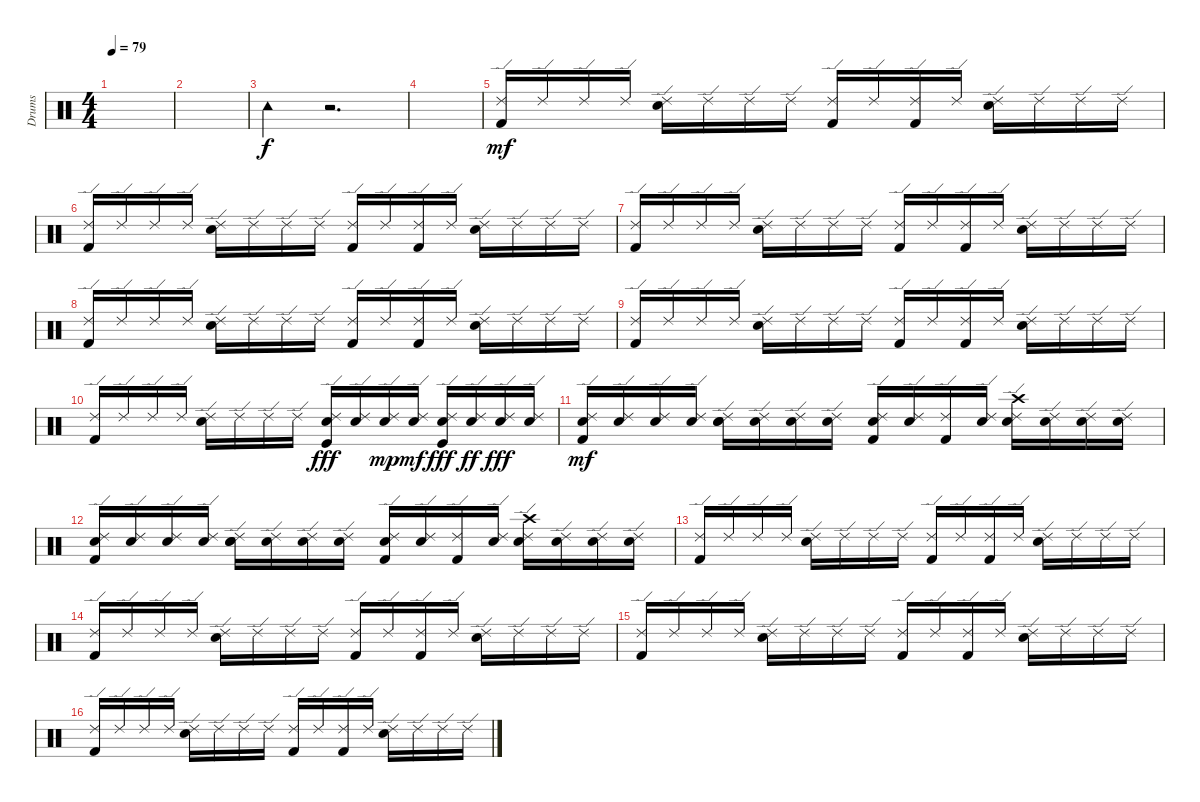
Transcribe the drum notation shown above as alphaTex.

\track ("Drums" "Drums") {instrument percussion}
\staff {score}
\articulation defaults
\ts (4 4)
\tempo 79
\clef neutral
\ks c
|
|
"Tambourine (hit)".4 r.2{d} |
|
("Kick (hit) 2" "Ride (edge) 2").16{dy mf} "Ride (edge) 2".16 "Ride (edge) 2".16 "Ride (edge) 2".16 ("Electric Snare (hit)" "Ride (edge) 2").16 "Ride (edge) 2".16 "Ride (edge) 2".16 "Ride (edge) 2".16 ("Kick (hit) 2" "Ride (edge) 2").16 "Ride (edge) 2".16 ("Kick (hit) 2" "Ride (edge) 2").16 "Ride (edge) 2".16 ("Electric Snare (hit)" "Ride (edge) 2").16 "Ride (edge) 2".16 "Ride (edge) 2".16 "Ride (edge) 2".16 |
("Kick (hit) 2" "Ride (edge) 2").16 "Ride (edge) 2".16 "Ride (edge) 2".16 "Ride (edge) 2".16 ("Electric Snare (hit)" "Ride (edge) 2").16 "Ride (edge) 2".16 "Ride (edge) 2".16 "Ride (edge) 2".16 ("Kick (hit) 2" "Ride (edge) 2").16 "Ride (edge) 2".16 ("Kick (hit) 2" "Ride (edge) 2").16 "Ride (edge) 2".16 ("Electric Snare (hit)" "Ride (edge) 2").16 "Ride (edge) 2".16 "Ride (edge) 2".16 "Ride (edge) 2".16 |
("Kick (hit) 2" "Ride (edge) 2").16 "Ride (edge) 2".16 "Ride (edge) 2".16 "Ride (edge) 2".16 ("Electric Snare (hit)" "Ride (edge) 2").16 "Ride (edge) 2".16 "Ride (edge) 2".16 "Ride (edge) 2".16 ("Kick (hit) 2" "Ride (edge) 2").16 "Ride (edge) 2".16 ("Kick (hit) 2" "Ride (edge) 2").16 "Ride (edge) 2".16 ("Electric Snare (hit)" "Ride (edge) 2").16 "Ride (edge) 2".16 "Ride (edge) 2".16 "Ride (edge) 2".16 |
("Kick (hit) 2" "Ride (edge) 2").16 "Ride (edge) 2".16 "Ride (edge) 2".16 "Ride (edge) 2".16 ("Electric Snare (hit)" "Ride (edge) 2").16 "Ride (edge) 2".16 "Ride (edge) 2".16 "Ride (edge) 2".16 ("Kick (hit) 2" "Ride (edge) 2").16 "Ride (edge) 2".16 ("Kick (hit) 2" "Ride (edge) 2").16 "Ride (edge) 2".16 ("Electric Snare (hit)" "Ride (edge) 2").16 "Ride (edge) 2".16 "Ride (edge) 2".16 "Ride (edge) 2".16 |
("Kick (hit) 2" "Ride (edge) 2").16 "Ride (edge) 2".16 "Ride (edge) 2".16 "Ride (edge) 2".16 ("Electric Snare (hit)" "Ride (edge) 2").16 "Ride (edge) 2".16 "Ride (edge) 2".16 "Ride (edge) 2".16 ("Kick (hit) 2" "Ride (edge) 2").16 "Ride (edge) 2".16 ("Kick (hit) 2" "Ride (edge) 2").16 "Ride (edge) 2".16 ("Electric Snare (hit)" "Ride (edge) 2").16 "Ride (edge) 2".16 "Ride (edge) 2".16 "Ride (edge) 2".16 |
("Kick (hit) 2" "Ride (edge) 2").16 "Ride (edge) 2".16 "Ride (edge) 2".16 "Ride (edge) 2".16 ("Electric Snare (hit)" "Ride (edge) 2").16 "Ride (edge) 2".16 "Ride (edge) 2".16 "Ride (edge) 2".16 ("Electric Snare (hit)" "Ride (edge) 2" "Kick (hit)").16{dy fff} ("Electric Snare (hit)" "Ride (edge) 2").16 ("Electric Snare (hit)" "Ride (edge) 2").16{dy mp} ("Electric Snare (hit)" "Ride (edge) 2").16{dy mf} ("Electric Snare (hit)" "Ride (edge) 2" "Kick (hit)").16{dy fff} ("Electric Snare (hit)" "Ride (edge) 2").16{dy ff} ("Electric Snare (hit)" "Ride (edge) 2").16{dy fff} ("Electric Snare (hit)" "Ride (edge) 2").16 |
("Kick (hit) 2" "Ride (edge) 2" "Electric Snare (hit)").16{dy mf} ("Snare (hit) 2" "Ride (edge) 2").16 ("Snare (hit) 2" "Ride (edge) 2").16 ("Snare (hit) 2" "Ride (edge) 2").16 ("Electric Snare (hit)" "Ride (edge) 2" "Electric Snare (hit)").16 ("Snare (hit) 2" "Ride (edge) 2").16 ("Snare (hit) 2" "Ride (edge) 2").16 ("Snare (hit) 2" "Ride (edge) 2").16 ("Kick (hit) 2" "Ride (edge) 2" "Electric Snare (hit)").16 ("Snare (hit) 2" "Ride (edge) 2").16 ("Kick (hit) 2" "Ride (edge) 2").16 ("Snare (hit) 2" "Ride (edge) 2").16 ("Electric Snare (hit)" "Ride (edge) 2" "Crash high (hit)").16 ("Snare (hit) 2" "Ride (edge) 2").16 ("Snare (hit) 2" "Ride (edge) 2").16 ("Snare (hit) 2" "Ride (edge) 2").16 |
("Kick (hit) 2" "Ride (edge) 2" "Electric Snare (hit)").16 ("Snare (hit) 2" "Ride (edge) 2").16 ("Snare (hit) 2" "Ride (edge) 2").16 ("Snare (hit) 2" "Ride (edge) 2").16 ("Electric Snare (hit)" "Ride (edge) 2" "Electric Snare (hit)").16 ("Snare (hit) 2" "Ride (edge) 2").16 ("Snare (hit) 2" "Ride (edge) 2").16 ("Snare (hit) 2" "Ride (edge) 2").16 ("Kick (hit) 2" "Ride (edge) 2" "Electric Snare (hit)").16 ("Snare (hit) 2" "Ride (edge) 2").16 ("Kick (hit) 2" "Ride (edge) 2").16 ("Snare (hit) 2" "Ride (edge) 2").16 ("Electric Snare (hit)" "Ride (edge) 2" "Crash high (hit)").16 ("Snare (hit) 2" "Ride (edge) 2").16 ("Snare (hit) 2" "Ride (edge) 2").16 ("Snare (hit) 2" "Ride (edge) 2").16 |
("Kick (hit) 2" "Ride (edge) 2").16 "Ride (edge) 2".16 "Ride (edge) 2".16 "Ride (edge) 2".16 ("Electric Snare (hit)" "Ride (edge) 2").16 "Ride (edge) 2".16 "Ride (edge) 2".16 "Ride (edge) 2".16 ("Kick (hit) 2" "Ride (edge) 2").16 "Ride (edge) 2".16 ("Kick (hit) 2" "Ride (edge) 2").16 "Ride (edge) 2".16 ("Electric Snare (hit)" "Ride (edge) 2").16 "Ride (edge) 2".16 "Ride (edge) 2".16 "Ride (edge) 2".16 |
("Kick (hit) 2" "Ride (edge) 2").16 "Ride (edge) 2".16 "Ride (edge) 2".16 "Ride (edge) 2".16 ("Electric Snare (hit)" "Ride (edge) 2").16 "Ride (edge) 2".16 "Ride (edge) 2".16 "Ride (edge) 2".16 ("Kick (hit) 2" "Ride (edge) 2").16 "Ride (edge) 2".16 ("Kick (hit) 2" "Ride (edge) 2").16 "Ride (edge) 2".16 ("Electric Snare (hit)" "Ride (edge) 2").16 "Ride (edge) 2".16 "Ride (edge) 2".16 "Ride (edge) 2".16 |
("Kick (hit) 2" "Ride (edge) 2").16 "Ride (edge) 2".16 "Ride (edge) 2".16 "Ride (edge) 2".16 ("Electric Snare (hit)" "Ride (edge) 2").16 "Ride (edge) 2".16 "Ride (edge) 2".16 "Ride (edge) 2".16 ("Kick (hit) 2" "Ride (edge) 2").16 "Ride (edge) 2".16 ("Kick (hit) 2" "Ride (edge) 2").16 "Ride (edge) 2".16 ("Electric Snare (hit)" "Ride (edge) 2").16 "Ride (edge) 2".16 "Ride (edge) 2".16 "Ride (edge) 2".16 |
("Kick (hit) 2" "Ride (edge) 2").16 "Ride (edge) 2".16 "Ride (edge) 2".16 "Ride (edge) 2".16 ("Electric Snare (hit)" "Ride (edge) 2").16 "Ride (edge) 2".16 "Ride (edge) 2".16 "Ride (edge) 2".16 ("Kick (hit) 2" "Ride (edge) 2").16 "Ride (edge) 2".16 ("Kick (hit) 2" "Ride (edge) 2").16 "Ride (edge) 2".16 ("Electric Snare (hit)" "Ride (edge) 2").16 "Ride (edge) 2".16 "Ride (edge) 2".16 "Ride (edge) 2".16
